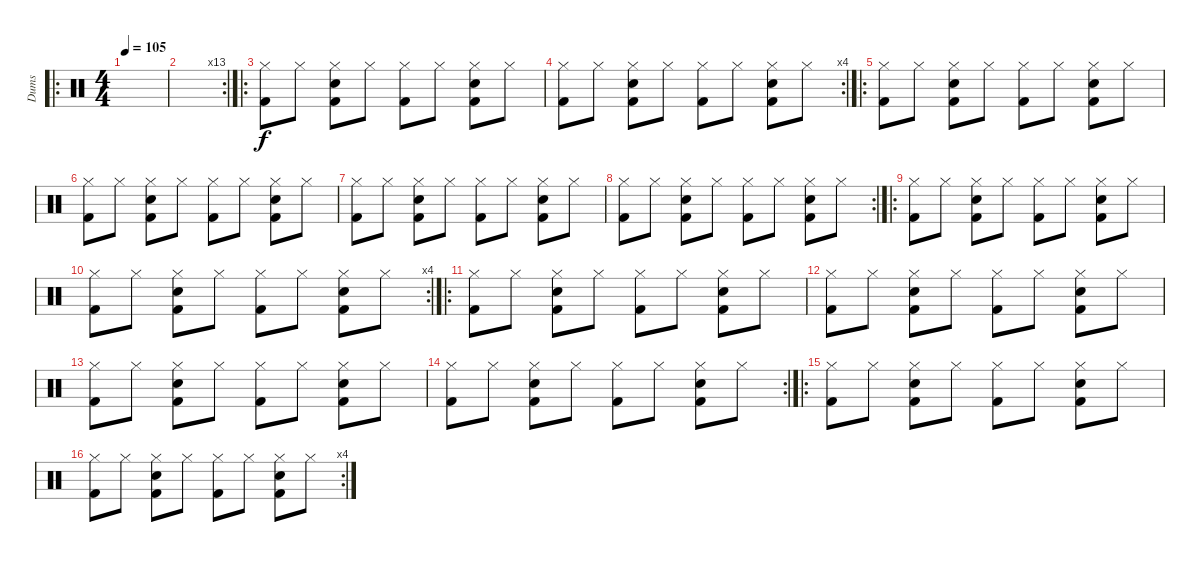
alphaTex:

\track ("Dums" "Dums") {instrument percussion}
\staff {score}
\articulation defaults
\ro
\ts (4 4)
\tempo 105
\clef neutral
\ks c
|
\rc 13
|
\ro
("Hi-Hat (closed)" "Kick (hit) 2").8 "Hi-Hat (closed)".8 ("Hi-Hat (closed)" "Electric Snare (hit)" "Kick (hit) 2").8 "Hi-Hat (closed)".8 ("Hi-Hat (closed)" "Kick (hit) 2").8 "Hi-Hat (closed)".8 ("Hi-Hat (closed)" "Electric Snare (hit)" "Kick (hit) 2").8 "Hi-Hat (closed)".8 |
\rc 4
("Hi-Hat (closed)" "Kick (hit) 2").8 "Hi-Hat (closed)".8 ("Hi-Hat (closed)" "Electric Snare (hit)" "Kick (hit) 2").8 "Hi-Hat (closed)".8 ("Hi-Hat (closed)" "Kick (hit) 2").8 "Hi-Hat (closed)".8 ("Hi-Hat (closed)" "Electric Snare (hit)" "Kick (hit) 2").8 "Hi-Hat (closed)".8 |
\ro
("Hi-Hat (closed)" "Kick (hit) 2").8 "Hi-Hat (closed)".8 ("Hi-Hat (closed)" "Electric Snare (hit)" "Kick (hit) 2").8 "Hi-Hat (closed)".8 ("Hi-Hat (closed)" "Kick (hit) 2").8 "Hi-Hat (closed)".8 ("Hi-Hat (closed)" "Electric Snare (hit)" "Kick (hit) 2").8 "Hi-Hat (closed)".8 |
("Hi-Hat (closed)" "Kick (hit) 2").8 "Hi-Hat (closed)".8 ("Hi-Hat (closed)" "Electric Snare (hit)" "Kick (hit) 2").8 "Hi-Hat (closed)".8 ("Hi-Hat (closed)" "Kick (hit) 2").8 "Hi-Hat (closed)".8 ("Hi-Hat (closed)" "Electric Snare (hit)" "Kick (hit) 2").8 "Hi-Hat (closed)".8 |
("Hi-Hat (closed)" "Kick (hit) 2").8 "Hi-Hat (closed)".8 ("Hi-Hat (closed)" "Electric Snare (hit)" "Kick (hit) 2").8 "Hi-Hat (closed)".8 ("Hi-Hat (closed)" "Kick (hit) 2").8 "Hi-Hat (closed)".8 ("Hi-Hat (closed)" "Electric Snare (hit)" "Kick (hit) 2").8 "Hi-Hat (closed)".8 |
\rc 2
("Hi-Hat (closed)" "Kick (hit) 2").8 "Hi-Hat (closed)".8 ("Hi-Hat (closed)" "Electric Snare (hit)" "Kick (hit) 2").8 "Hi-Hat (closed)".8 ("Hi-Hat (closed)" "Kick (hit) 2").8 "Hi-Hat (closed)".8 ("Hi-Hat (closed)" "Electric Snare (hit)" "Kick (hit) 2").8 "Hi-Hat (closed)".8 |
\ro
("Hi-Hat (closed)" "Kick (hit) 2").8 "Hi-Hat (closed)".8 ("Hi-Hat (closed)" "Electric Snare (hit)" "Kick (hit) 2").8 "Hi-Hat (closed)".8 ("Hi-Hat (closed)" "Kick (hit) 2").8 "Hi-Hat (closed)".8 ("Hi-Hat (closed)" "Electric Snare (hit)" "Kick (hit) 2").8 "Hi-Hat (closed)".8 |
\rc 4
("Hi-Hat (closed)" "Kick (hit) 2").8 "Hi-Hat (closed)".8 ("Hi-Hat (closed)" "Electric Snare (hit)" "Kick (hit) 2").8 "Hi-Hat (closed)".8 ("Hi-Hat (closed)" "Kick (hit) 2").8 "Hi-Hat (closed)".8 ("Hi-Hat (closed)" "Electric Snare (hit)" "Kick (hit) 2").8 "Hi-Hat (closed)".8 |
\ro
("Hi-Hat (closed)" "Kick (hit) 2").8 "Hi-Hat (closed)".8 ("Hi-Hat (closed)" "Electric Snare (hit)" "Kick (hit) 2").8 "Hi-Hat (closed)".8 ("Hi-Hat (closed)" "Kick (hit) 2").8 "Hi-Hat (closed)".8 ("Hi-Hat (closed)" "Electric Snare (hit)" "Kick (hit) 2").8 "Hi-Hat (closed)".8 |
("Hi-Hat (closed)" "Kick (hit) 2").8 "Hi-Hat (closed)".8 ("Hi-Hat (closed)" "Electric Snare (hit)" "Kick (hit) 2").8 "Hi-Hat (closed)".8 ("Hi-Hat (closed)" "Kick (hit) 2").8 "Hi-Hat (closed)".8 ("Hi-Hat (closed)" "Electric Snare (hit)" "Kick (hit) 2").8 "Hi-Hat (closed)".8 |
("Hi-Hat (closed)" "Kick (hit) 2").8 "Hi-Hat (closed)".8 ("Hi-Hat (closed)" "Electric Snare (hit)" "Kick (hit) 2").8 "Hi-Hat (closed)".8 ("Hi-Hat (closed)" "Kick (hit) 2").8 "Hi-Hat (closed)".8 ("Hi-Hat (closed)" "Electric Snare (hit)" "Kick (hit) 2").8 "Hi-Hat (closed)".8 |
\rc 2
("Hi-Hat (closed)" "Kick (hit) 2").8 "Hi-Hat (closed)".8 ("Hi-Hat (closed)" "Electric Snare (hit)" "Kick (hit) 2").8 "Hi-Hat (closed)".8 ("Hi-Hat (closed)" "Kick (hit) 2").8 "Hi-Hat (closed)".8 ("Hi-Hat (closed)" "Electric Snare (hit)" "Kick (hit) 2").8 "Hi-Hat (closed)".8 |
\ro
("Hi-Hat (closed)" "Kick (hit) 2").8 "Hi-Hat (closed)".8 ("Hi-Hat (closed)" "Electric Snare (hit)" "Kick (hit) 2").8 "Hi-Hat (closed)".8 ("Hi-Hat (closed)" "Kick (hit) 2").8 "Hi-Hat (closed)".8 ("Hi-Hat (closed)" "Electric Snare (hit)" "Kick (hit) 2").8 "Hi-Hat (closed)".8 |
\rc 4
("Hi-Hat (closed)" "Kick (hit) 2").8 "Hi-Hat (closed)".8 ("Hi-Hat (closed)" "Electric Snare (hit)" "Kick (hit) 2").8 "Hi-Hat (closed)".8 ("Hi-Hat (closed)" "Kick (hit) 2").8 "Hi-Hat (closed)".8 ("Hi-Hat (closed)" "Electric Snare (hit)" "Kick (hit) 2").8 "Hi-Hat (closed)".8
